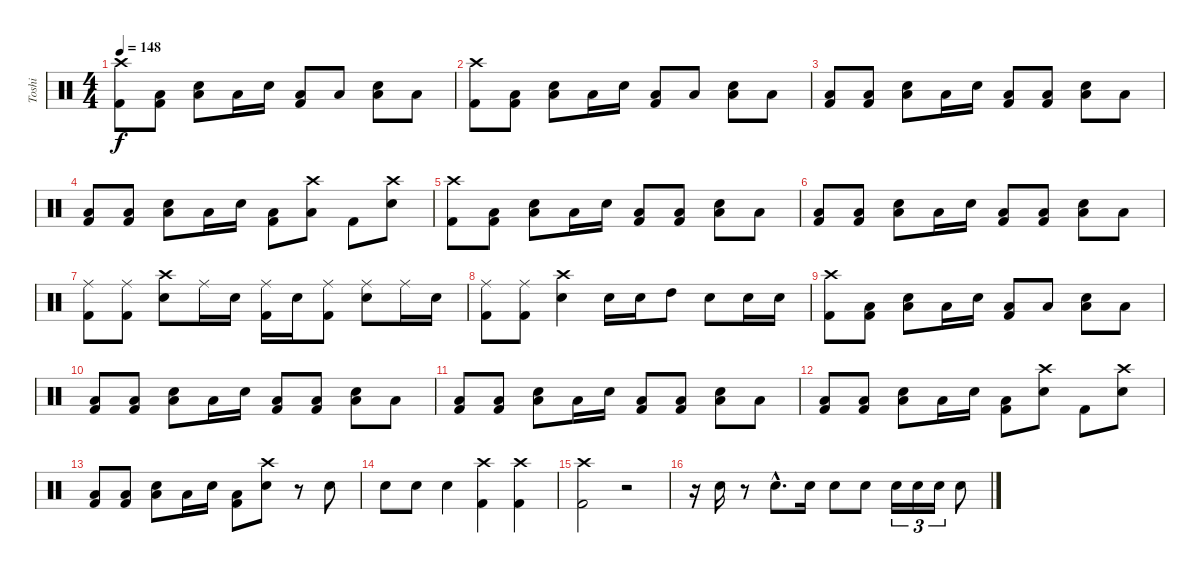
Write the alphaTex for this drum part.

\track ("Toshi" "Toshi") {instrument percussion}
\staff {score}
\articulation defaults
\ts (4 4)
\tempo 148
\clef neutral
\ks c
("Crash high (hit)" "Kick (hit) 2").8{dy f} ("Low Floor Tom (hit)" "Kick (hit) 2").8 ("Low Floor Tom (hit)" "Snare (hit) 2").8 "Low Floor Tom (hit)".16 "Snare (hit) 2".16 ("Low Floor Tom (hit)" "Kick (hit) 2").8 "Low Floor Tom (hit)".8 ("Low Floor Tom (hit)" "Snare (hit) 2").8 "Low Floor Tom (hit)".8 |
("Crash high (hit)" "Kick (hit) 2").8 ("Low Floor Tom (hit)" "Kick (hit) 2").8 ("Low Floor Tom (hit)" "Snare (hit) 2").8 "Low Floor Tom (hit)".16 "Snare (hit) 2".16 ("Low Floor Tom (hit)" "Kick (hit) 2").8 "Low Floor Tom (hit)".8 ("Low Floor Tom (hit)" "Snare (hit) 2").8 "Low Floor Tom (hit)".8 |
("Low Floor Tom (hit)" "Kick (hit) 2").8 ("Low Floor Tom (hit)" "Kick (hit) 2").8 ("Low Floor Tom (hit)" "Snare (hit) 2").8 "Low Floor Tom (hit)".16 "Snare (hit) 2".16 ("Low Floor Tom (hit)" "Kick (hit) 2").8 ("Low Floor Tom (hit)" "Kick (hit) 2").8 ("Low Floor Tom (hit)" "Snare (hit) 2").8 "Low Floor Tom (hit)".8 |
("Low Floor Tom (hit)" "Kick (hit) 2").8 ("Low Floor Tom (hit)" "Kick (hit) 2").8 ("Low Floor Tom (hit)" "Snare (hit) 2").8 "Low Floor Tom (hit)".16 "Snare (hit) 2".16 ("Low Floor Tom (hit)" "Kick (hit) 2").8 ("Crash high (hit)" "Low Tom (hit)").8 "Kick (hit) 2".8 ("Crash high (hit)" "Snare (hit) 2").8 |
("Crash high (hit)" "Kick (hit) 2").8 ("Low Floor Tom (hit)" "Kick (hit) 2").8 ("Low Floor Tom (hit)" "Snare (hit) 2").8 "Low Floor Tom (hit)".16 "Snare (hit) 2".16 ("Low Floor Tom (hit)" "Kick (hit) 2").8 ("Low Floor Tom (hit)" "Kick (hit) 2").8 ("Low Floor Tom (hit)" "Snare (hit) 2").8 "Low Floor Tom (hit)".8 |
("Low Floor Tom (hit)" "Kick (hit) 2").8 ("Low Floor Tom (hit)" "Kick (hit) 2").8 ("Low Floor Tom (hit)" "Snare (hit) 2").8 "Low Floor Tom (hit)".16 "Snare (hit) 2".16 ("Low Floor Tom (hit)" "Kick (hit) 2").8 ("Low Floor Tom (hit)" "Kick (hit) 2").8 ("Low Floor Tom (hit)" "Snare (hit) 2").8 "Low Floor Tom (hit)".8 |
("Ride (middle)" "Kick (hit) 2").8 ("Ride (middle)" "Kick (hit) 2").8 ("Crash high (hit)" "Snare (hit) 2").8 "Ride (middle)".16 "Snare (hit) 2".16 ("Ride (middle)" "Kick (hit) 2").16 "Snare (hit) 2".16 ("Ride (middle)" "Kick (hit) 2").8 ("Ride (middle)" "Snare (hit) 2").8 "Ride (middle)".16 "Snare (hit) 2".16 |
("Ride (middle)" "Kick (hit) 2").8 ("Ride (middle)" "Kick (hit) 2").8 ("Crash high (hit)" "Snare (hit) 2").4 "Snare (hit) 2".16 "Snare (hit) 2".16 "High Tom (hit)".8 "Snare (hit) 2".8 "Snare (hit) 2".16 "Snare (hit) 2".16 |
("Crash high (hit)" "Kick (hit) 2").8 ("Low Floor Tom (hit)" "Kick (hit) 2").8 ("Low Floor Tom (hit)" "Snare (hit) 2").8 "Low Floor Tom (hit)".16 "Snare (hit) 2".16 ("Low Floor Tom (hit)" "Kick (hit) 2").8 "Low Floor Tom (hit)".8 ("Low Floor Tom (hit)" "Snare (hit) 2").8 "Low Floor Tom (hit)".8 |
("Low Floor Tom (hit)" "Kick (hit) 2").8 ("Low Floor Tom (hit)" "Kick (hit) 2").8 ("Low Floor Tom (hit)" "Snare (hit) 2").8 "Low Floor Tom (hit)".16 "Snare (hit) 2".16 ("Low Floor Tom (hit)" "Kick (hit) 2").8 ("Low Floor Tom (hit)" "Kick (hit) 2").8 ("Low Floor Tom (hit)" "Snare (hit) 2").8 "Low Floor Tom (hit)".8 |
("Low Floor Tom (hit)" "Kick (hit) 2").8 ("Low Floor Tom (hit)" "Kick (hit) 2").8 ("Low Floor Tom (hit)" "Snare (hit) 2").8 "Low Floor Tom (hit)".16 "Snare (hit) 2".16 ("Low Floor Tom (hit)" "Kick (hit) 2").8 ("Low Floor Tom (hit)" "Kick (hit) 2").8 ("Low Floor Tom (hit)" "Snare (hit) 2").8 "Low Floor Tom (hit)".8 |
("Low Floor Tom (hit)" "Kick (hit) 2").8 ("Low Floor Tom (hit)" "Kick (hit) 2").8 ("Low Floor Tom (hit)" "Snare (hit) 2").8 "Low Floor Tom (hit)".16 "Snare (hit) 2".16 ("Low Floor Tom (hit)" "Kick (hit) 2").8 ("Crash high (hit)" "Snare (hit) 2").8 "Kick (hit) 2".8 ("Crash high (hit)" "Snare (hit) 2").8 |
("Low Floor Tom (hit)" "Kick (hit) 2").8 ("Low Floor Tom (hit)" "Kick (hit) 2").8 ("Low Floor Tom (hit)" "Snare (hit) 2").8 "Low Floor Tom (hit)".16 "Snare (hit) 2".16 ("Low Floor Tom (hit)" "Kick (hit) 2").8 ("Crash high (hit)" "Snare (hit) 2").8 r.8 "Snare (hit) 2".8 |
"Snare (hit) 2".8 "Snare (hit) 2".8 "Snare (hit) 2".4 ("Crash high (hit)" "Kick (hit) 2").4 ("Crash high (hit)" "Kick (hit) 2").4 |
("Crash high (hit)" "Kick (hit) 2").2 r.2 |
r.16 "Snare (hit) 2".16 r.8 "Snare (hit) 2"{hac}.8{d} "Snare (hit) 2".16 "Snare (hit) 2".8 "Snare (hit) 2".8 "Snare (hit) 2".16{tu (3 2)} "Snare (hit) 2".16{tu (3 2)} "Snare (hit) 2".16{tu (3 2)} "Snare (hit) 2".8
